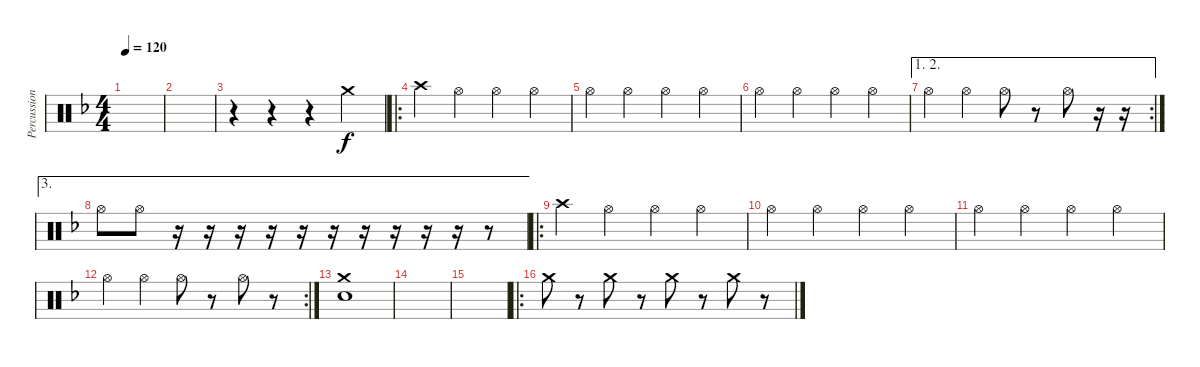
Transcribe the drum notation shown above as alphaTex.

\track ("Percussion" "Percussion") {instrument percussion}
\staff {score}
\articulation defaults
\ts (4 4)
\tempo 120
\clef neutral
\ks f
|
|
r.4 r.4 r.4 "Crash medium (hit)".4 |
\ro "Crash high (hit)".4 "Hi-Hat (open)".4 "Hi-Hat (open)".4 "Hi-Hat (open)".4
|
"Hi-Hat (open)".4 "Hi-Hat (open)".4 "Hi-Hat (open)".4 "Hi-Hat (open)".4 |
"Hi-Hat (open)".4 "Hi-Hat (open)".4 "Hi-Hat (open)".4 "Hi-Hat (open)".4 |
\ae (1 2)
\rc 2 "Hi-Hat (open)".4 "Hi-Hat (open)".4 "Hi-Hat (open)".8
r.8 "Hi-Hat (open)".8 r.16 r.16 |
\ae 3 "Hi-Hat (open)".8 "Hi-Hat (open)".8
r.16 r.16 r.16 r.16 r.16 r.16 r.16 r.16 r.16 r.16 r.8 |
\ro "Crash high (hit)".4 "Hi-Hat (open)".4 "Hi-Hat (open)".4 "Hi-Hat (open)".4
|
"Hi-Hat (open)".4 "Hi-Hat (open)".4 "Hi-Hat (open)".4 "Hi-Hat (open)".4 |
"Hi-Hat (open)".4 "Hi-Hat (open)".4 "Hi-Hat (open)".4 "Hi-Hat (open)".4 |
\rc 2 "Hi-Hat (open)".4 "Hi-Hat (open)".4 "Hi-Hat (open)".8
r.8 "Hi-Hat (open)".8 r.8 |
("Snare (hit) 2" "Crash medium (hit)").1 |
|
|
\ro "Crash medium (hit)".8
r.8 "Crash medium (hit)".8 r.8 "Crash medium (hit)".8 r.8 "Crash medium (hit)".8 r.8
